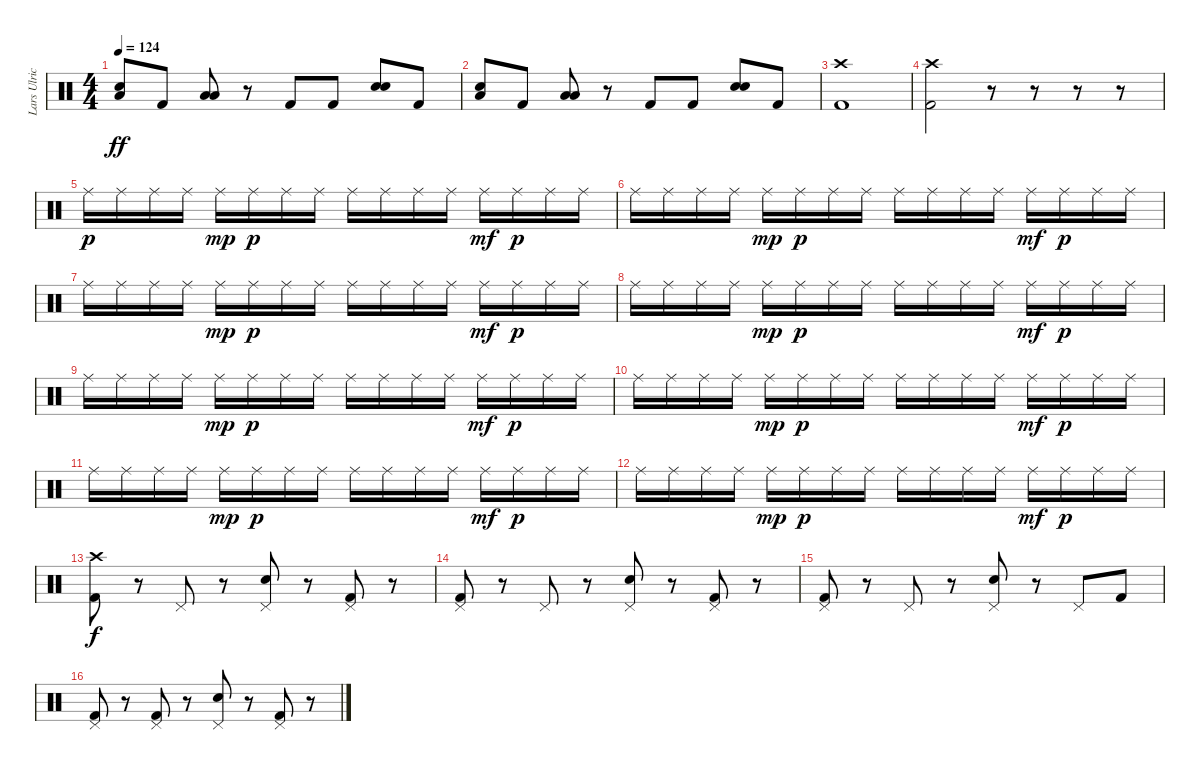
\track ("Lars Ulrich" "Lars Ulric") {instrument percussion}
\staff {score}
\articulation defaults
\ts (4 4)
\tempo 124
\clef neutral
\ks c
("Electric Snare (hit)" "Low Tom (hit)").8{dy ff} "Kick (hit) 2".8 ("Low Tom (hit)" "Low Tom (hit)").8 r.8 "Kick (hit) 2".8 "Kick (hit) 2".8 ("Electric Snare (hit)" "Electric Snare (hit)").8{bd 240} "Kick (hit) 2".8 |
("Electric Snare (hit)" "Low Tom (hit)").8 "Kick (hit) 2".8 ("Low Tom (hit)" "Low Tom (hit)").8 r.8 "Kick (hit) 2".8 "Kick (hit) 2".8 ("Electric Snare (hit)" "Electric Snare (hit)").8{bd 240} "Kick (hit) 2".8 |
("Crash high (hit)" "Kick (hit) 2").1 |
("Crash high (hit)" "Kick (hit) 2").2 r.8 r.8 r.8 r.8 |
"Ride (middle)".16{dy p} "Ride (middle)".16 "Ride (middle)".16 "Ride (middle)".16 "Ride (middle)".16{dy mp} "Ride (middle)".16{dy p} "Ride (middle)".16 "Ride (middle)".16 "Ride (middle)".16 "Ride (middle)".16 "Ride (middle)".16 "Ride (middle)".16 "Ride (middle)".16{dy mf} "Ride (middle)".16{dy p} "Ride (middle)".16 "Ride (middle)".16 |
"Ride (middle)".16 "Ride (middle)".16 "Ride (middle)".16 "Ride (middle)".16 "Ride (middle)".16{dy mp} "Ride (middle)".16{dy p} "Ride (middle)".16 "Ride (middle)".16 "Ride (middle)".16 "Ride (middle)".16 "Ride (middle)".16 "Ride (middle)".16 "Ride (middle)".16{dy mf} "Ride (middle)".16{dy p} "Ride (middle)".16 "Ride (middle)".16 |
"Ride (middle)".16 "Ride (middle)".16 "Ride (middle)".16 "Ride (middle)".16 "Ride (middle)".16{dy mp} "Ride (middle)".16{dy p} "Ride (middle)".16 "Ride (middle)".16 "Ride (middle)".16 "Ride (middle)".16 "Ride (middle)".16 "Ride (middle)".16 "Ride (middle)".16{dy mf} "Ride (middle)".16{dy p} "Ride (middle)".16 "Ride (middle)".16 |
"Ride (middle)".16 "Ride (middle)".16 "Ride (middle)".16 "Ride (middle)".16 "Ride (middle)".16{dy mp} "Ride (middle)".16{dy p} "Ride (middle)".16 "Ride (middle)".16 "Ride (middle)".16 "Ride (middle)".16 "Ride (middle)".16 "Ride (middle)".16 "Ride (middle)".16{dy mf} "Ride (middle)".16{dy p} "Ride (middle)".16 "Ride (middle)".16 |
"Ride (middle)".16 "Ride (middle)".16 "Ride (middle)".16 "Ride (middle)".16 "Ride (middle)".16{dy mp} "Ride (middle)".16{dy p} "Ride (middle)".16 "Ride (middle)".16 "Ride (middle)".16 "Ride (middle)".16 "Ride (middle)".16 "Ride (middle)".16 "Ride (middle)".16{dy mf} "Ride (middle)".16{dy p} "Ride (middle)".16 "Ride (middle)".16 |
"Ride (middle)".16 "Ride (middle)".16 "Ride (middle)".16 "Ride (middle)".16 "Ride (middle)".16{dy mp} "Ride (middle)".16{dy p} "Ride (middle)".16 "Ride (middle)".16 "Ride (middle)".16 "Ride (middle)".16 "Ride (middle)".16 "Ride (middle)".16 "Ride (middle)".16{dy mf} "Ride (middle)".16{dy p} "Ride (middle)".16 "Ride (middle)".16 |
"Ride (middle)".16 "Ride (middle)".16 "Ride (middle)".16 "Ride (middle)".16 "Ride (middle)".16{dy mp} "Ride (middle)".16{dy p} "Ride (middle)".16 "Ride (middle)".16 "Ride (middle)".16 "Ride (middle)".16 "Ride (middle)".16 "Ride (middle)".16 "Ride (middle)".16{dy mf} "Ride (middle)".16{dy p} "Ride (middle)".16 "Ride (middle)".16 |
"Ride (middle)".16 "Ride (middle)".16 "Ride (middle)".16 "Ride (middle)".16 "Ride (middle)".16{dy mp} "Ride (middle)".16{dy p} "Ride (middle)".16 "Ride (middle)".16 "Ride (middle)".16 "Ride (middle)".16 "Ride (middle)".16 "Ride (middle)".16 "Ride (middle)".16{dy mf} "Ride (middle)".16{dy p} "Ride (middle)".16 "Ride (middle)".16 |
("Crash high (hit)" "Kick (hit) 2").8{dy f} r.8 "Pedal Hi-Hat (hit)".8 r.8 ("Pedal Hi-Hat (hit)" "Electric Snare (hit)").8 r.8 ("Pedal Hi-Hat (hit)" "Kick (hit) 2").8 r.8 |
("Pedal Hi-Hat (hit)" "Kick (hit) 2").8 r.8 "Pedal Hi-Hat (hit)".8 r.8 ("Pedal Hi-Hat (hit)" "Electric Snare (hit)").8 r.8 ("Pedal Hi-Hat (hit)" "Kick (hit) 2").8 r.8 |
("Pedal Hi-Hat (hit)" "Kick (hit) 2").8 r.8 "Pedal Hi-Hat (hit)".8 r.8 ("Pedal Hi-Hat (hit)" "Electric Snare (hit)").8 r.8 "Pedal Hi-Hat (hit)".8 "Kick (hit) 2".8 |
("Pedal Hi-Hat (hit)" "Kick (hit) 2").8 r.8 ("Pedal Hi-Hat (hit)" "Kick (hit) 2").8 r.8 ("Pedal Hi-Hat (hit)" "Electric Snare (hit)").8 r.8 ("Pedal Hi-Hat (hit)" "Kick (hit) 2").8 r.8
